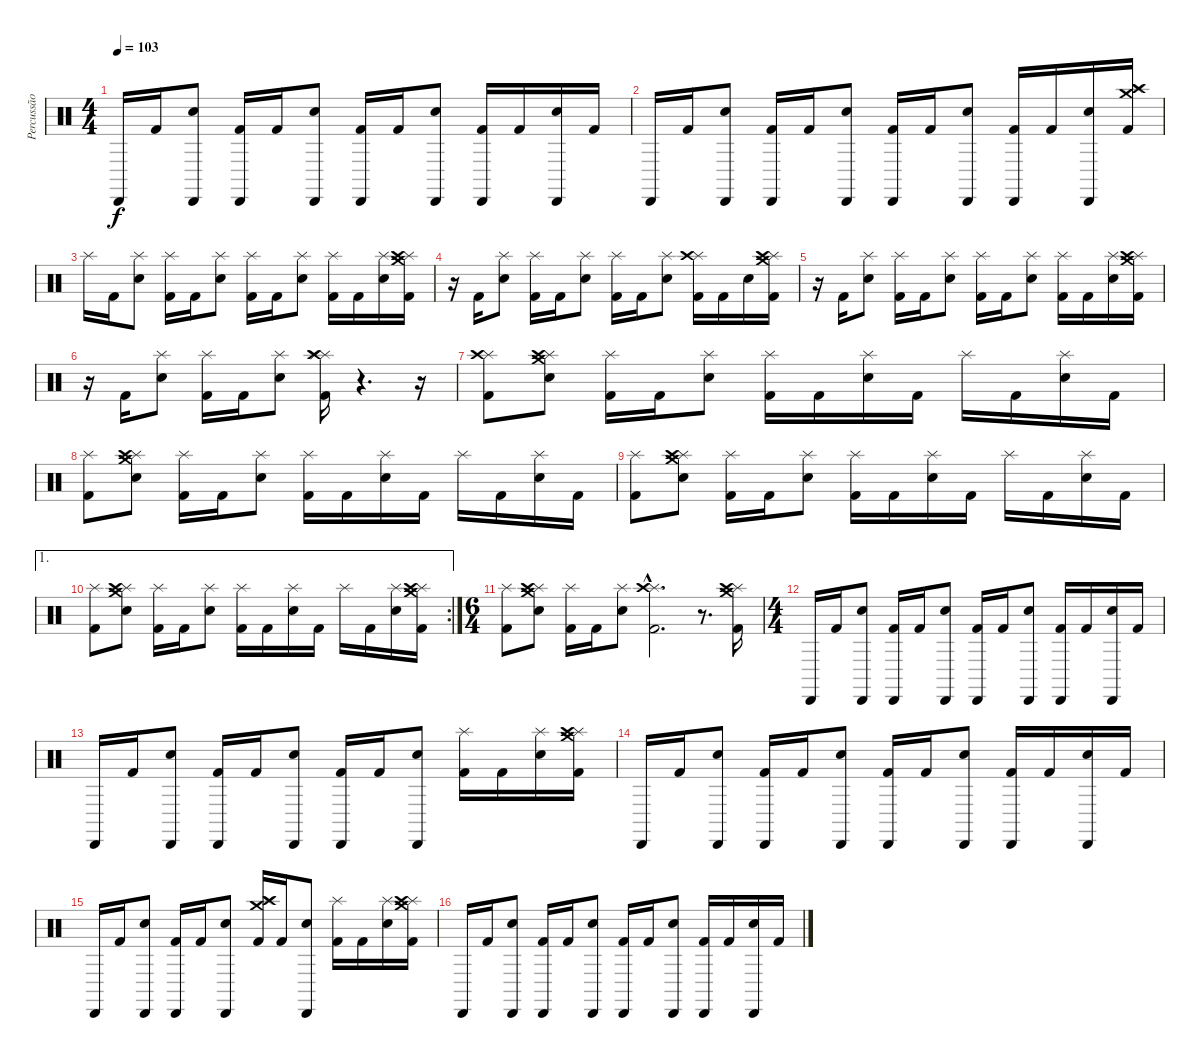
\track ("Percussão" "Percussão") {instrument percussion}
\staff {score}
\articulation defaults
\ts (4 4)
\tempo 103
\clef neutral
\ks c "Cabasa (hit)".16{dy f} "Kick (hit) 2".16
("Cabasa (hit)" "Electric Snare (hit)").8 ("Cabasa (hit)" "Kick (hit) 2").16 "Kick (hit) 2".16 ("Cabasa (hit)" "Electric Snare (hit)").8 ("Cabasa (hit)" "Kick (hit) 2").16 "Kick (hit) 2".16 ("Cabasa (hit)" "Electric Snare (hit)").8 ("Cabasa (hit)" "Kick (hit) 2").16 "Kick (hit) 2".16 ("Cabasa (hit)" "Electric Snare (hit)").16 "Kick (hit) 2".16 |
"Cabasa (hit)".16 "Kick (hit) 2".16 ("Cabasa (hit)" "Electric Snare (hit)").8 ("Cabasa (hit)" "Kick (hit) 2").16 "Kick (hit) 2".16 ("Cabasa (hit)" "Electric Snare (hit)").8 ("Cabasa (hit)" "Kick (hit) 2").16 "Kick (hit) 2".16 ("Cabasa (hit)" "Electric Snare (hit)").8 ("Cabasa (hit)" "Kick (hit) 2").16 "Kick (hit) 2".16 ("Cabasa (hit)" "Electric Snare (hit)").16 ("Crash medium (hit)" "Splash (hit)" "Crash high (hit)" "Kick (hit) 2").16 |
"Splash (hit)".16 "Kick (hit) 2".16 ("Splash (hit)" "Electric Snare (hit)").8 ("Splash (hit)" "Kick (hit) 2").16 "Kick (hit) 2".16 ("Splash (hit)" "Electric Snare (hit)").8 ("Splash (hit)" "Kick (hit) 2").16 "Kick (hit) 2".16 ("Splash (hit)" "Electric Snare (hit)").8 ("Splash (hit)" "Kick (hit) 2").16 "Kick (hit) 2".16 ("Splash (hit)" "Electric Snare (hit)").16 ("Crash medium (hit)" "Splash (hit)" "Crash high (hit)" "Kick (hit) 2").16 |
r.16 "Kick (hit) 2".16 ("Splash (hit)" "Electric Snare (hit)").8 ("Splash (hit)" "Kick (hit) 2").16 "Kick (hit) 2".16 ("Splash (hit)" "Electric Snare (hit)").8 ("Splash (hit)" "Kick (hit) 2").16 "Kick (hit) 2".16 ("Splash (hit)" "Electric Snare (hit)").8 ("Splash (hit)" "Crash high (hit)" "Kick (hit) 2").16 "Kick (hit) 2".16 "Electric Snare (hit)".16 ("Crash medium (hit)" "Splash (hit)" "Crash high (hit)" "Kick (hit) 2").16 |
r.16 "Kick (hit) 2".16 ("Splash (hit)" "Electric Snare (hit)").8 ("Splash (hit)" "Kick (hit) 2").16 "Kick (hit) 2".16 ("Splash (hit)" "Electric Snare (hit)").8 ("Splash (hit)" "Kick (hit) 2").16 "Kick (hit) 2".16 ("Splash (hit)" "Electric Snare (hit)").8 ("Splash (hit)" "Kick (hit) 2").16 "Kick (hit) 2".16 ("Splash (hit)" "Electric Snare (hit)").16 ("Crash medium (hit)" "Splash (hit)" "Crash high (hit)" "Kick (hit) 2").16 |
r.16 "Kick (hit) 2".16 ("Splash (hit)" "Electric Snare (hit)").8 ("Splash (hit)" "Kick (hit) 2").16 "Kick (hit) 2".16 ("Splash (hit)" "Electric Snare (hit)").8 ("Splash (hit)" "Splash (hit)" "Crash high (hit)" "Kick (hit) 2").16 r.4{d} r.16 |
("Splash (hit)" "Crash high (hit)" "Kick (hit) 2").8 ("Crash medium (hit)" "Splash (hit)" "Crash high (hit)" "Electric Snare (hit)").8 ("Splash (hit)" "Kick (hit) 2").16 "Kick (hit) 2".16 ("Splash (hit)" "Electric Snare (hit)").8 ("Splash (hit)" "Kick (hit) 2").16 "Kick (hit) 2".16 ("Splash (hit)" "Electric Snare (hit)").16 "Kick (hit) 2".16 "Splash (hit)".16 "Kick (hit) 2".16 ("Splash (hit)" "Electric Snare (hit)").16 "Kick (hit) 2".16 |
("Splash (hit)" "Kick (hit) 2").8 ("Crash medium (hit)" "Splash (hit)" "Crash high (hit)" "Electric Snare (hit)").8 ("Splash (hit)" "Kick (hit) 2").16 "Kick (hit) 2".16 ("Splash (hit)" "Electric Snare (hit)").8 ("Splash (hit)" "Kick (hit) 2").16 "Kick (hit) 2".16 ("Splash (hit)" "Electric Snare (hit)").16 "Kick (hit) 2".16 "Splash (hit)".16 "Kick (hit) 2".16 ("Splash (hit)" "Electric Snare (hit)").16 "Kick (hit) 2".16 |
("Splash (hit)" "Kick (hit) 2").8 ("Crash medium (hit)" "Splash (hit)" "Crash high (hit)" "Electric Snare (hit)").8 ("Splash (hit)" "Kick (hit) 2").16 "Kick (hit) 2".16 ("Splash (hit)" "Electric Snare (hit)").8 ("Splash (hit)" "Kick (hit) 2").16 "Kick (hit) 2".16 ("Splash (hit)" "Electric Snare (hit)").16 "Kick (hit) 2".16 "Splash (hit)".16 "Kick (hit) 2".16 ("Splash (hit)" "Electric Snare (hit)").16 "Kick (hit) 2".16 |
\ae 1
\rc 2
("Splash (hit)" "Kick (hit) 2").8 ("Crash medium (hit)" "Splash (hit)" "Crash high (hit)" "Electric Snare (hit)").8 ("Splash (hit)" "Kick (hit) 2").16 "Kick (hit) 2".16 ("Splash (hit)" "Electric Snare (hit)").8 ("Splash (hit)" "Kick (hit) 2").16 "Kick (hit) 2".16 ("Splash (hit)" "Electric Snare (hit)").16 "Kick (hit) 2".16 "Splash (hit)".16 "Kick (hit) 2".16 ("Splash (hit)" "Electric Snare (hit)").16 ("Crash medium (hit)" "Splash (hit)" "Crash high (hit)" "Kick (hit) 2").16 |
\ts (6 4)
("Splash (hit)" "Kick (hit) 2").8 ("Crash medium (hit)" "Splash (hit)" "Crash high (hit)" "Electric Snare (hit)").8 ("Splash (hit)" "Kick (hit) 2").16 "Kick (hit) 2".16 ("Splash (hit)" "Electric Snare (hit)").8 ("Splash (hit)"{hac} "Crash high (hit)"{hac} "Kick (hit) 2"{hac}).2{d} r.8{d} ("Crash medium (hit)" "Splash (hit)" "Crash high (hit)" "Kick (hit) 2").16 |
\ts (4 4)
"Cabasa (hit)".16 "Kick (hit) 2".16 ("Cabasa (hit)" "Electric Snare (hit)").8 ("Cabasa (hit)" "Kick (hit) 2").16 "Kick (hit) 2".16 ("Cabasa (hit)" "Electric Snare (hit)").8 ("Cabasa (hit)" "Kick (hit) 2").16 "Kick (hit) 2".16 ("Cabasa (hit)" "Electric Snare (hit)").8 ("Cabasa (hit)" "Kick (hit) 2").16 "Kick (hit) 2".16 ("Cabasa (hit)" "Electric Snare (hit)").16 "Kick (hit) 2".16 |
"Cabasa (hit)".16 "Kick (hit) 2".16 ("Cabasa (hit)" "Electric Snare (hit)").8 ("Cabasa (hit)" "Kick (hit) 2").16 "Kick (hit) 2".16 ("Cabasa (hit)" "Electric Snare (hit)").8 ("Cabasa (hit)" "Kick (hit) 2").16 "Kick (hit) 2".16 ("Cabasa (hit)" "Electric Snare (hit)").8 ("Splash (hit)" "Kick (hit) 2").16 "Kick (hit) 2".16 ("Splash (hit)" "Electric Snare (hit)").16 ("Crash medium (hit)" "Splash (hit)" "Crash high (hit)" "Kick (hit) 2").16 |
"Cabasa (hit)".16 "Kick (hit) 2".16 ("Cabasa (hit)" "Electric Snare (hit)").8 ("Cabasa (hit)" "Kick (hit) 2").16 "Kick (hit) 2".16 ("Cabasa (hit)" "Electric Snare (hit)").8 ("Cabasa (hit)" "Kick (hit) 2").16 "Kick (hit) 2".16 ("Cabasa (hit)" "Electric Snare (hit)").8 ("Cabasa (hit)" "Kick (hit) 2").16 "Kick (hit) 2".16 ("Cabasa (hit)" "Electric Snare (hit)").16 "Kick (hit) 2".16 |
"Cabasa (hit)".16 "Kick (hit) 2".16 ("Cabasa (hit)" "Electric Snare (hit)").8 ("Cabasa (hit)" "Kick (hit) 2").16 "Kick (hit) 2".16 ("Cabasa (hit)" "Electric Snare (hit)").8 ("Crash medium (hit)" "Splash (hit)" "Crash high (hit)" "Kick (hit) 2").16 "Kick (hit) 2".16 ("Cabasa (hit)" "Electric Snare (hit)").8 ("Splash (hit)" "Kick (hit) 2").16 "Kick (hit) 2".16 ("Splash (hit)" "Electric Snare (hit)").16 ("Crash medium (hit)" "Splash (hit)" "Crash high (hit)" "Kick (hit) 2").16 |
"Cabasa (hit)".16 "Kick (hit) 2".16 ("Cabasa (hit)" "Electric Snare (hit)").8 ("Cabasa (hit)" "Kick (hit) 2").16 "Kick (hit) 2".16 ("Cabasa (hit)" "Electric Snare (hit)").8 ("Cabasa (hit)" "Kick (hit) 2").16 "Kick (hit) 2".16 ("Cabasa (hit)" "Electric Snare (hit)").8 ("Cabasa (hit)" "Kick (hit) 2").16 "Kick (hit) 2".16 ("Cabasa (hit)" "Electric Snare (hit)").16 "Kick (hit) 2".16
